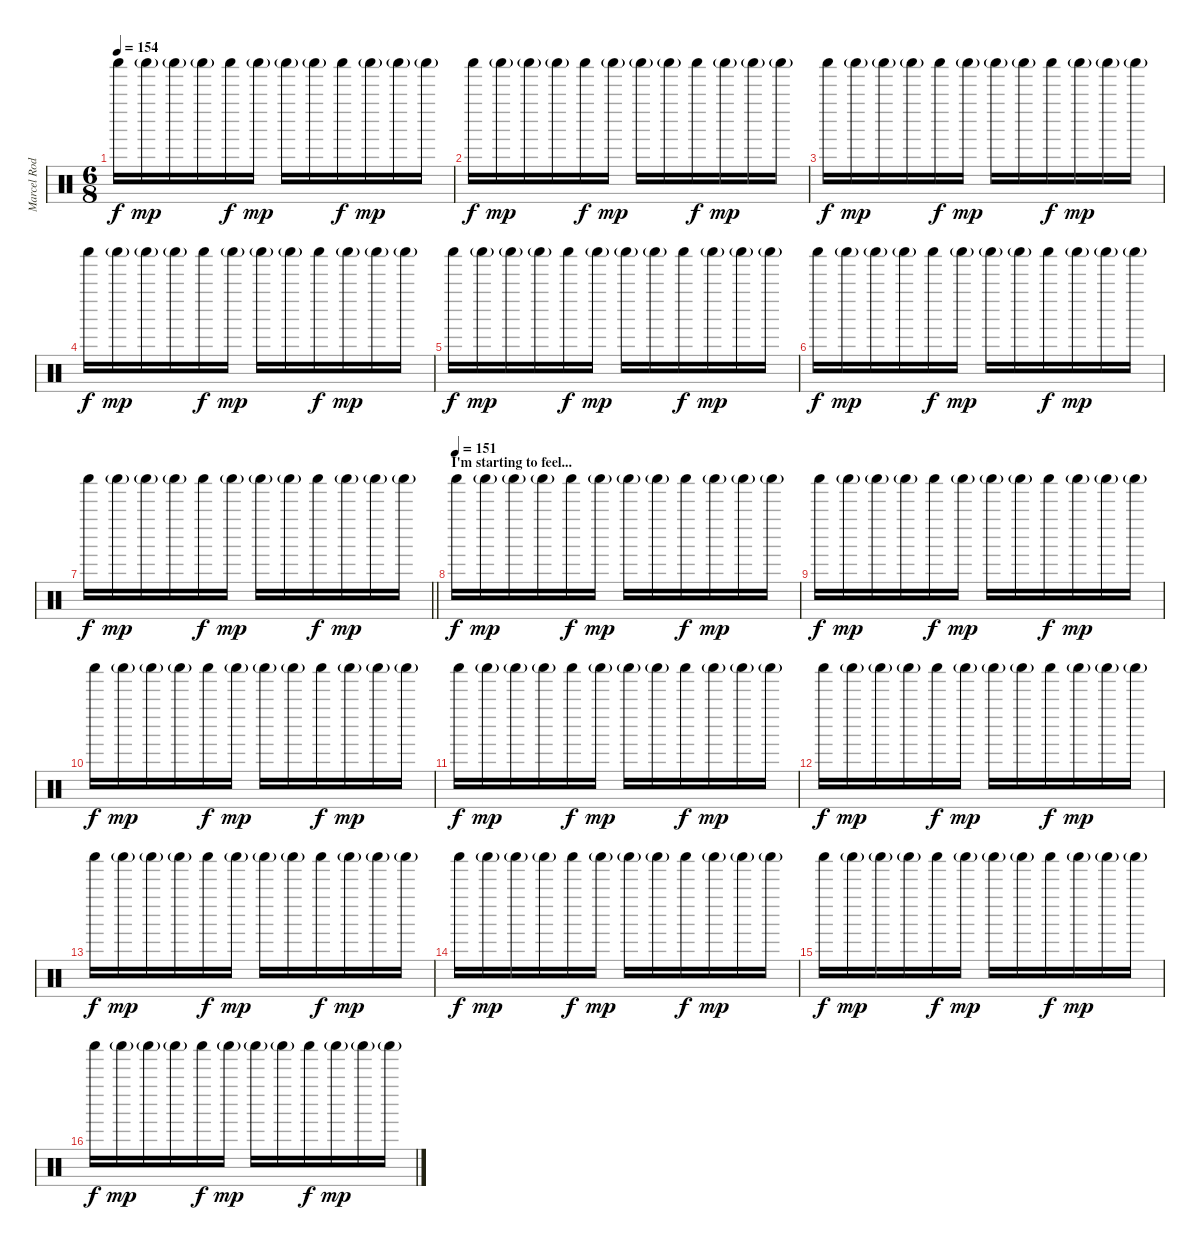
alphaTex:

\track ("Marcel Rodriguez-Lopez" "Marcel Rod") {instrument percussion}
\staff {score}
\articulation defaults
\ts (6 8)
\tempo 154
\clef neutral
\ks c "Shaker (hit)".16{dy f} "Shaker (hit)"{g}.16{dy mp} "Shaker (hit)"{g}.16 "Shaker (hit)"{g}.16 "Shaker (hit)".16{dy f} "Shaker (hit)"{g}.16{dy mp} "Shaker (hit)"{g}.16 "Shaker (hit)"{g}.16 "Shaker (hit)".16{dy f} "Shaker (hit)"{g}.16{dy mp} "Shaker (hit)"{g}.16 "Shaker (hit)"{g}.16
|
"Shaker (hit)".16{dy f} "Shaker (hit)"{g}.16{dy mp} "Shaker (hit)"{g}.16 "Shaker (hit)"{g}.16 "Shaker (hit)".16{dy f} "Shaker (hit)"{g}.16{dy mp} "Shaker (hit)"{g}.16 "Shaker (hit)"{g}.16 "Shaker (hit)".16{dy f} "Shaker (hit)"{g}.16{dy mp} "Shaker (hit)"{g}.16 "Shaker (hit)"{g}.16 |
"Shaker (hit)".16{dy f} "Shaker (hit)"{g}.16{dy mp} "Shaker (hit)"{g}.16 "Shaker (hit)"{g}.16 "Shaker (hit)".16{dy f} "Shaker (hit)"{g}.16{dy mp} "Shaker (hit)"{g}.16 "Shaker (hit)"{g}.16 "Shaker (hit)".16{dy f} "Shaker (hit)"{g}.16{dy mp} "Shaker (hit)"{g}.16 "Shaker (hit)"{g}.16 |
"Shaker (hit)".16{dy f} "Shaker (hit)"{g}.16{dy mp} "Shaker (hit)"{g}.16 "Shaker (hit)"{g}.16 "Shaker (hit)".16{dy f} "Shaker (hit)"{g}.16{dy mp} "Shaker (hit)"{g}.16 "Shaker (hit)"{g}.16 "Shaker (hit)".16{dy f} "Shaker (hit)"{g}.16{dy mp} "Shaker (hit)"{g}.16 "Shaker (hit)"{g}.16 |
"Shaker (hit)".16{dy f} "Shaker (hit)"{g}.16{dy mp} "Shaker (hit)"{g}.16 "Shaker (hit)"{g}.16 "Shaker (hit)".16{dy f} "Shaker (hit)"{g}.16{dy mp} "Shaker (hit)"{g}.16 "Shaker (hit)"{g}.16 "Shaker (hit)".16{dy f} "Shaker (hit)"{g}.16{dy mp} "Shaker (hit)"{g}.16 "Shaker (hit)"{g}.16 |
"Shaker (hit)".16{dy f} "Shaker (hit)"{g}.16{dy mp} "Shaker (hit)"{g}.16 "Shaker (hit)"{g}.16 "Shaker (hit)".16{dy f} "Shaker (hit)"{g}.16{dy mp} "Shaker (hit)"{g}.16 "Shaker (hit)"{g}.16 "Shaker (hit)".16{dy f} "Shaker (hit)"{g}.16{dy mp} "Shaker (hit)"{g}.16 "Shaker (hit)"{g}.16 |
\barLineRight lightlight "Shaker (hit)".16{dy f} "Shaker (hit)"{g}.16{dy mp} "Shaker (hit)"{g}.16 "Shaker (hit)"{g}.16 "Shaker (hit)".16{dy f} "Shaker (hit)"{g}.16{dy mp} "Shaker (hit)"{g}.16 "Shaker (hit)"{g}.16 "Shaker (hit)".16{dy f} "Shaker (hit)"{g}.16{dy mp} "Shaker (hit)"{g}.16 "Shaker (hit)"{g}.16
|
\section ("" "I'm starting to feel...")
\tempo (151)
"Shaker (hit)".16{dy f} "Shaker (hit)"{g}.16{dy mp} "Shaker (hit)"{g}.16 "Shaker (hit)"{g}.16 "Shaker (hit)".16{dy f} "Shaker (hit)"{g}.16{dy mp} "Shaker (hit)"{g}.16 "Shaker (hit)"{g}.16 "Shaker (hit)".16{dy f} "Shaker (hit)"{g}.16{dy mp} "Shaker (hit)"{g}.16 "Shaker (hit)"{g}.16 |
"Shaker (hit)".16{dy f} "Shaker (hit)"{g}.16{dy mp} "Shaker (hit)"{g}.16 "Shaker (hit)"{g}.16 "Shaker (hit)".16{dy f} "Shaker (hit)"{g}.16{dy mp} "Shaker (hit)"{g}.16 "Shaker (hit)"{g}.16 "Shaker (hit)".16{dy f} "Shaker (hit)"{g}.16{dy mp} "Shaker (hit)"{g}.16 "Shaker (hit)"{g}.16 |
"Shaker (hit)".16{dy f} "Shaker (hit)"{g}.16{dy mp} "Shaker (hit)"{g}.16 "Shaker (hit)"{g}.16 "Shaker (hit)".16{dy f} "Shaker (hit)"{g}.16{dy mp} "Shaker (hit)"{g}.16 "Shaker (hit)"{g}.16 "Shaker (hit)".16{dy f} "Shaker (hit)"{g}.16{dy mp} "Shaker (hit)"{g}.16 "Shaker (hit)"{g}.16 |
"Shaker (hit)".16{dy f} "Shaker (hit)"{g}.16{dy mp} "Shaker (hit)"{g}.16 "Shaker (hit)"{g}.16 "Shaker (hit)".16{dy f} "Shaker (hit)"{g}.16{dy mp} "Shaker (hit)"{g}.16 "Shaker (hit)"{g}.16 "Shaker (hit)".16{dy f} "Shaker (hit)"{g}.16{dy mp} "Shaker (hit)"{g}.16 "Shaker (hit)"{g}.16 |
"Shaker (hit)".16{dy f} "Shaker (hit)"{g}.16{dy mp} "Shaker (hit)"{g}.16 "Shaker (hit)"{g}.16 "Shaker (hit)".16{dy f} "Shaker (hit)"{g}.16{dy mp} "Shaker (hit)"{g}.16 "Shaker (hit)"{g}.16 "Shaker (hit)".16{dy f} "Shaker (hit)"{g}.16{dy mp} "Shaker (hit)"{g}.16 "Shaker (hit)"{g}.16 |
"Shaker (hit)".16{dy f} "Shaker (hit)"{g}.16{dy mp} "Shaker (hit)"{g}.16 "Shaker (hit)"{g}.16 "Shaker (hit)".16{dy f} "Shaker (hit)"{g}.16{dy mp} "Shaker (hit)"{g}.16 "Shaker (hit)"{g}.16 "Shaker (hit)".16{dy f} "Shaker (hit)"{g}.16{dy mp} "Shaker (hit)"{g}.16 "Shaker (hit)"{g}.16 |
"Shaker (hit)".16{dy f} "Shaker (hit)"{g}.16{dy mp} "Shaker (hit)"{g}.16 "Shaker (hit)"{g}.16 "Shaker (hit)".16{dy f} "Shaker (hit)"{g}.16{dy mp} "Shaker (hit)"{g}.16 "Shaker (hit)"{g}.16 "Shaker (hit)".16{dy f} "Shaker (hit)"{g}.16{dy mp} "Shaker (hit)"{g}.16 "Shaker (hit)"{g}.16 |
"Shaker (hit)".16{dy f} "Shaker (hit)"{g}.16{dy mp} "Shaker (hit)"{g}.16 "Shaker (hit)"{g}.16 "Shaker (hit)".16{dy f} "Shaker (hit)"{g}.16{dy mp} "Shaker (hit)"{g}.16 "Shaker (hit)"{g}.16 "Shaker (hit)".16{dy f} "Shaker (hit)"{g}.16{dy mp} "Shaker (hit)"{g}.16 "Shaker (hit)"{g}.16 |
"Shaker (hit)".16{dy f} "Shaker (hit)"{g}.16{dy mp} "Shaker (hit)"{g}.16 "Shaker (hit)"{g}.16 "Shaker (hit)".16{dy f} "Shaker (hit)"{g}.16{dy mp} "Shaker (hit)"{g}.16 "Shaker (hit)"{g}.16 "Shaker (hit)".16{dy f} "Shaker (hit)"{g}.16{dy mp} "Shaker (hit)"{g}.16 "Shaker (hit)"{g}.16
